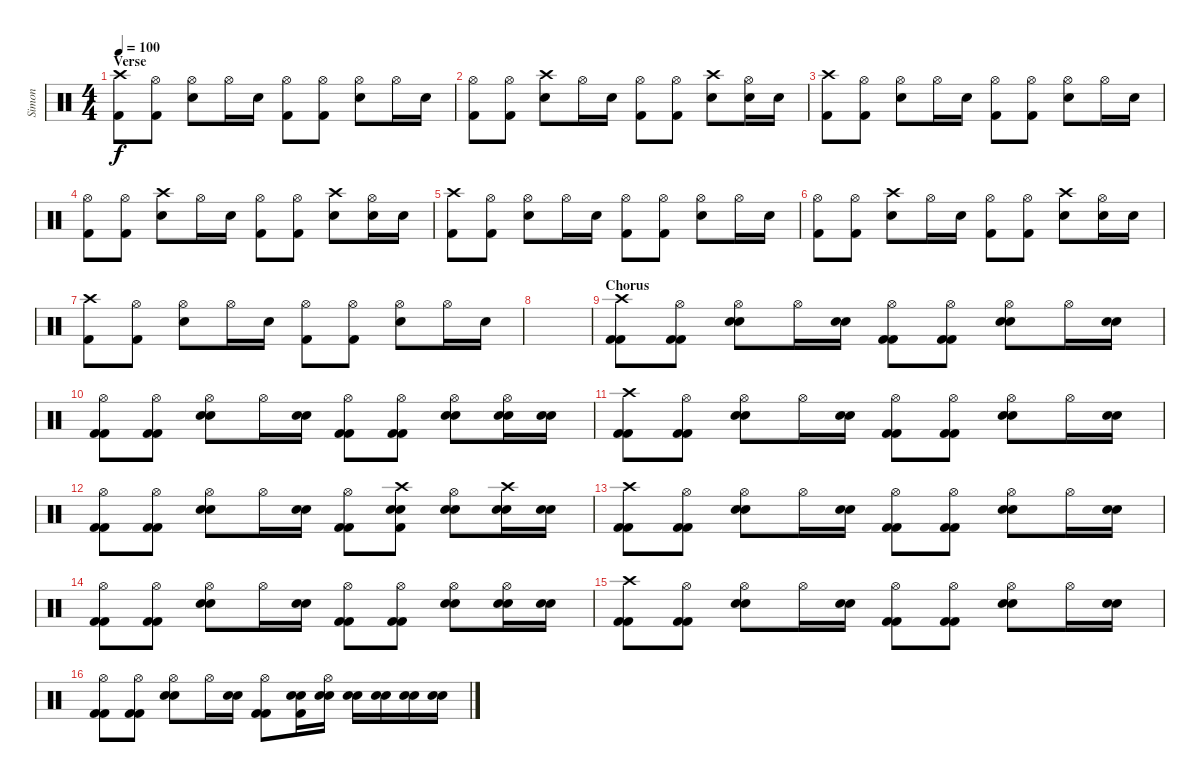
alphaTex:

\track ("Simon" "Simon") {instrument percussion}
\staff {score}
\articulation defaults
\ts (4 4)
\section ("" "Verse")
\tempo 100
\clef neutral
\ks c
("Crash high (hit)" "Kick (hit) 2").8{dy f} ("Hi-Hat (open)" "Kick (hit) 2").8 ("Hi-Hat (open)" "Electric Snare (hit)").8 "Hi-Hat (open)".16 "Electric Snare (hit)".16 ("Hi-Hat (open)" "Kick (hit) 2").8 ("Hi-Hat (open)" "Kick (hit) 2").8 ("Hi-Hat (open)" "Electric Snare (hit)").8 "Hi-Hat (open)".16 "Electric Snare (hit)".16 |
("Hi-Hat (open)" "Kick (hit) 2").8 ("Hi-Hat (open)" "Kick (hit) 2").8 ("Crash high (hit)" "Electric Snare (hit)").8 "Hi-Hat (open)".16 "Electric Snare (hit)".16 ("Hi-Hat (open)" "Kick (hit) 2").8 ("Hi-Hat (open)" "Kick (hit) 2").8 ("Crash high (hit)" "Electric Snare (hit)").8 ("Hi-Hat (open)" "Electric Snare (hit)").16 "Electric Snare (hit)".16 |
("Crash high (hit)" "Kick (hit) 2").8 ("Hi-Hat (open)" "Kick (hit) 2").8 ("Hi-Hat (open)" "Electric Snare (hit)").8 "Hi-Hat (open)".16 "Electric Snare (hit)".16 ("Hi-Hat (open)" "Kick (hit) 2").8 ("Hi-Hat (open)" "Kick (hit) 2").8 ("Hi-Hat (open)" "Electric Snare (hit)").8 "Hi-Hat (open)".16 "Electric Snare (hit)".16 |
("Hi-Hat (open)" "Kick (hit) 2").8 ("Hi-Hat (open)" "Kick (hit) 2").8 ("Crash high (hit)" "Electric Snare (hit)").8 "Hi-Hat (open)".16 "Electric Snare (hit)".16 ("Hi-Hat (open)" "Kick (hit) 2").8 ("Hi-Hat (open)" "Kick (hit) 2").8 ("Crash high (hit)" "Electric Snare (hit)").8 ("Hi-Hat (open)" "Electric Snare (hit)").16 "Electric Snare (hit)".16 |
("Crash high (hit)" "Kick (hit) 2").8 ("Hi-Hat (open)" "Kick (hit) 2").8 ("Hi-Hat (open)" "Electric Snare (hit)").8 "Hi-Hat (open)".16 "Electric Snare (hit)".16 ("Hi-Hat (open)" "Kick (hit) 2").8 ("Hi-Hat (open)" "Kick (hit) 2").8 ("Hi-Hat (open)" "Electric Snare (hit)").8 "Hi-Hat (open)".16 "Electric Snare (hit)".16 |
("Hi-Hat (open)" "Kick (hit) 2").8 ("Hi-Hat (open)" "Kick (hit) 2").8 ("Crash high (hit)" "Electric Snare (hit)").8 "Hi-Hat (open)".16 "Electric Snare (hit)".16 ("Hi-Hat (open)" "Kick (hit) 2").8 ("Hi-Hat (open)" "Kick (hit) 2").8 ("Crash high (hit)" "Electric Snare (hit)").8 ("Hi-Hat (open)" "Electric Snare (hit)").16 "Electric Snare (hit)".16 |
("Crash high (hit)" "Kick (hit) 2").8 ("Hi-Hat (open)" "Kick (hit) 2").8 ("Hi-Hat (open)" "Electric Snare (hit)").8 "Hi-Hat (open)".16 "Electric Snare (hit)".16 ("Hi-Hat (open)" "Kick (hit) 2").8 ("Hi-Hat (open)" "Kick (hit) 2").8 ("Hi-Hat (open)" "Electric Snare (hit)").8 "Hi-Hat (open)".16 "Electric Snare (hit)".16 |
|
\section ("" "Chorus")
("Crash high (hit)" "Kick (hit) 2" "Kick (hit) 2").8 ("Hi-Hat (open)" "Kick (hit) 2" "Kick (hit) 2").8 ("Hi-Hat (open)" "Electric Snare (hit)" "Electric Snare (hit)").8 "Hi-Hat (open)".16 ("Electric Snare (hit)" "Electric Snare (hit)").16 ("Hi-Hat (open)" "Kick (hit) 2" "Kick (hit) 2").8 ("Hi-Hat (open)" "Kick (hit) 2" "Kick (hit) 2").8 ("Hi-Hat (open)" "Electric Snare (hit)" "Electric Snare (hit)").8 "Hi-Hat (open)".16 ("Electric Snare (hit)" "Electric Snare (hit)").16 |
("Hi-Hat (open)" "Kick (hit) 2" "Kick (hit) 2").8 ("Hi-Hat (open)" "Kick (hit) 2" "Kick (hit) 2").8 ("Hi-Hat (open)" "Electric Snare (hit)" "Electric Snare (hit)").8 "Hi-Hat (open)".16 ("Electric Snare (hit)" "Electric Snare (hit)").16 ("Hi-Hat (open)" "Kick (hit) 2" "Kick (hit) 2").8 ("Hi-Hat (open)" "Kick (hit) 2" "Kick (hit) 2").8 ("Hi-Hat (open)" "Electric Snare (hit)" "Electric Snare (hit)").8 ("Hi-Hat (open)" "Electric Snare (hit)" "Electric Snare (hit)").16 ("Electric Snare (hit)" "Electric Snare (hit)").16 |
("Crash high (hit)" "Kick (hit) 2" "Kick (hit) 2").8 ("Hi-Hat (open)" "Kick (hit) 2" "Kick (hit) 2").8 ("Hi-Hat (open)" "Electric Snare (hit)" "Electric Snare (hit)").8 "Hi-Hat (open)".16 ("Electric Snare (hit)" "Electric Snare (hit)").16 ("Hi-Hat (open)" "Kick (hit) 2" "Kick (hit) 2").8 ("Hi-Hat (open)" "Kick (hit) 2" "Kick (hit) 2").8 ("Hi-Hat (open)" "Electric Snare (hit)" "Electric Snare (hit)").8 "Hi-Hat (open)".16 ("Electric Snare (hit)" "Electric Snare (hit)").16 |
("Hi-Hat (open)" "Kick (hit) 2" "Kick (hit) 2").8 ("Hi-Hat (open)" "Kick (hit) 2" "Kick (hit) 2").8 ("Hi-Hat (open)" "Electric Snare (hit)" "Electric Snare (hit)").8 "Hi-Hat (open)".16 ("Electric Snare (hit)" "Electric Snare (hit)").16 ("Hi-Hat (open)" "Kick (hit) 2" "Kick (hit) 2").8 ("Crash high (hit)" "Kick (hit) 2" "Electric Snare (hit)" "Electric Snare (hit)").8 ("Hi-Hat (open)" "Electric Snare (hit)" "Electric Snare (hit)").8 ("Crash high (hit)" "Electric Snare (hit)" "Electric Snare (hit)").16 ("Electric Snare (hit)" "Electric Snare (hit)").16 |
("Crash high (hit)" "Kick (hit) 2" "Kick (hit) 2").8 ("Hi-Hat (open)" "Kick (hit) 2" "Kick (hit) 2").8 ("Hi-Hat (open)" "Electric Snare (hit)" "Electric Snare (hit)").8 "Hi-Hat (open)".16 ("Electric Snare (hit)" "Electric Snare (hit)").16 ("Hi-Hat (open)" "Kick (hit) 2" "Kick (hit) 2").8 ("Hi-Hat (open)" "Kick (hit) 2" "Kick (hit) 2").8 ("Hi-Hat (open)" "Electric Snare (hit)" "Electric Snare (hit)").8 "Hi-Hat (open)".16 ("Electric Snare (hit)" "Electric Snare (hit)").16 |
("Hi-Hat (open)" "Kick (hit) 2" "Kick (hit) 2").8 ("Hi-Hat (open)" "Kick (hit) 2" "Kick (hit) 2").8 ("Hi-Hat (open)" "Electric Snare (hit)" "Electric Snare (hit)").8 "Hi-Hat (open)".16 ("Electric Snare (hit)" "Electric Snare (hit)").16 ("Hi-Hat (open)" "Kick (hit) 2" "Kick (hit) 2").8 ("Hi-Hat (open)" "Kick (hit) 2" "Kick (hit) 2").8 ("Hi-Hat (open)" "Electric Snare (hit)" "Electric Snare (hit)").8 ("Hi-Hat (open)" "Electric Snare (hit)" "Electric Snare (hit)").16 ("Electric Snare (hit)" "Electric Snare (hit)").16 |
("Crash high (hit)" "Kick (hit) 2" "Kick (hit) 2").8 ("Hi-Hat (open)" "Kick (hit) 2" "Kick (hit) 2").8 ("Hi-Hat (open)" "Electric Snare (hit)" "Electric Snare (hit)").8 "Hi-Hat (open)".16 ("Electric Snare (hit)" "Electric Snare (hit)").16 ("Hi-Hat (open)" "Kick (hit) 2" "Kick (hit) 2").8 ("Hi-Hat (open)" "Kick (hit) 2" "Kick (hit) 2").8 ("Hi-Hat (open)" "Electric Snare (hit)" "Electric Snare (hit)").8 "Hi-Hat (open)".16 ("Electric Snare (hit)" "Electric Snare (hit)").16 |
("Hi-Hat (open)" "Kick (hit) 2" "Kick (hit) 2").8 ("Hi-Hat (open)" "Kick (hit) 2" "Kick (hit) 2").8 ("Hi-Hat (open)" "Electric Snare (hit)" "Electric Snare (hit)").8 "Hi-Hat (open)".16 ("Electric Snare (hit)" "Electric Snare (hit)").16 ("Hi-Hat (open)" "Kick (hit) 2" "Kick (hit) 2").8 ("Kick (hit) 2" "Electric Snare (hit)" "Electric Snare (hit)").16 ("Hi-Hat (open)" "Electric Snare (hit)" "Electric Snare (hit)").16 ("Electric Snare (hit)" "Electric Snare (hit)").16 ("Electric Snare (hit)" "Electric Snare (hit)").16 ("Electric Snare (hit)" "Electric Snare (hit)").16 ("Electric Snare (hit)" "Electric Snare (hit)").16
